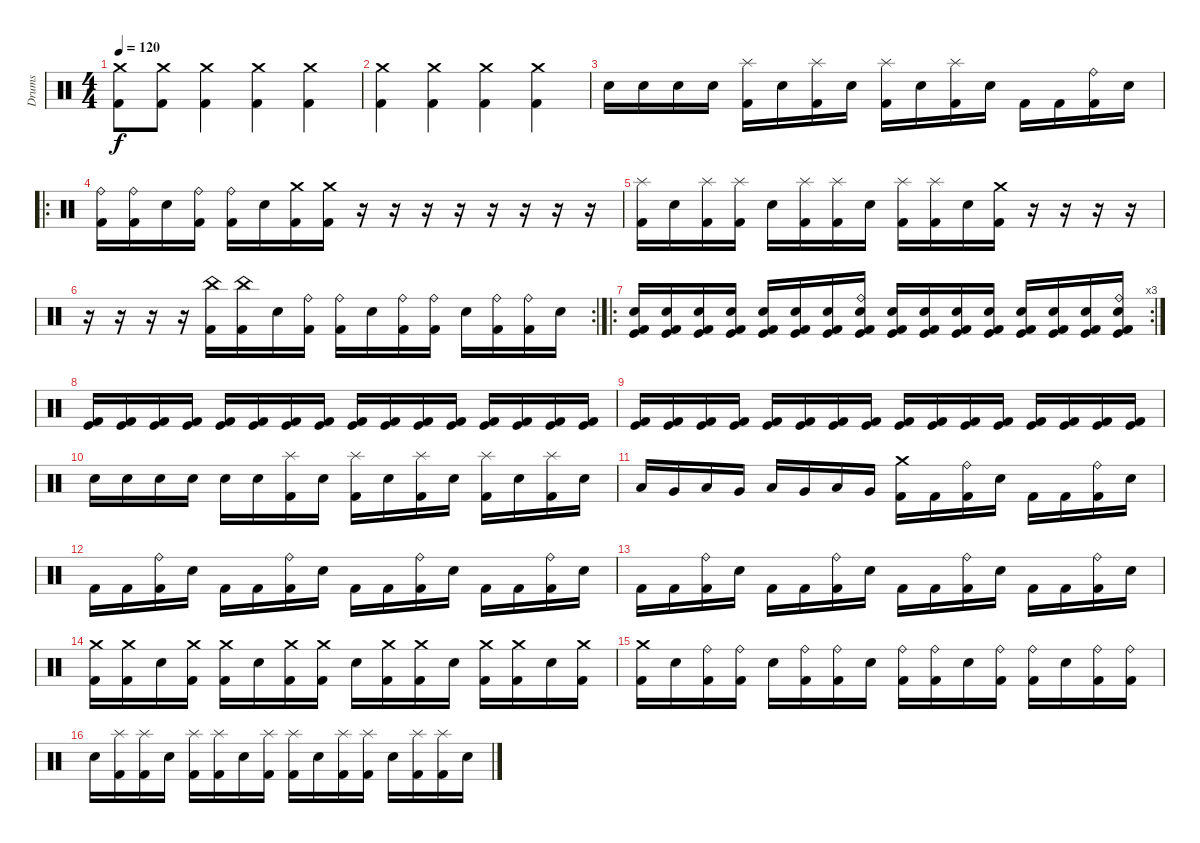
\track ("Drums" "Drums") {instrument percussion}
\staff {score}
\articulation defaults
\ts (4 4)
\tempo 120
\clef neutral
\ks c
("Crash medium (hit)" "Kick (hit) 2").8{dy f} ("Crash medium (hit)" "Kick (hit) 2").8 ("Crash medium (hit)" "Kick (hit) 2").4 ("Crash medium (hit)" "Kick (hit) 2").4 ("Crash medium (hit)" "Kick (hit) 2").4 |
("Crash medium (hit)" "Kick (hit) 2").4 ("Crash medium (hit)" "Kick (hit) 2").4 ("Crash medium (hit)" "Kick (hit) 2").4 ("Crash medium (hit)" "Kick (hit) 2").4 |
"Electric Snare (hit)".16 "Electric Snare (hit)".16 "Electric Snare (hit)".16 "Electric Snare (hit)".16 ("Splash (hit)" "Kick (hit) 2").16 "Electric Snare (hit)".16 ("Splash (hit)" "Kick (hit) 2").16 "Electric Snare (hit)".16 ("Splash (hit)" "Kick (hit) 2").16 "Electric Snare (hit)".16 ("Splash (hit)" "Kick (hit) 2").16 "Electric Snare (hit)".16 "Kick (hit) 2".16 "Kick (hit) 2".16 ("Ride (bell)" "Kick (hit) 2").16 "Electric Snare (hit)".16 |
\ro
("Ride (bell)" "Kick (hit) 2").16 ("Ride (bell)" "Kick (hit) 2").16 "Electric Snare (hit)".16 ("Ride (bell)" "Kick (hit) 2").16 ("Ride (bell)" "Kick (hit) 2").16 "Electric Snare (hit)".16 ("Crash medium (hit)" "Kick (hit) 2").16 ("Crash medium (hit)" "Kick (hit) 2").16 r.16 r.16 r.16 r.16 r.16 r.16 r.16 r.16 |
("Splash (hit)" "Kick (hit) 2").16 "Electric Snare (hit)".16 ("Splash (hit)" "Kick (hit) 2").16 ("Splash (hit)" "Kick (hit) 2").16 "Electric Snare (hit)".16 ("Splash (hit)" "Kick (hit) 2").16 ("Splash (hit)" "Kick (hit) 2").16 "Electric Snare (hit)".16 ("Splash (hit)" "Kick (hit) 2").16 ("Splash (hit)" "Kick (hit) 2").16 "Electric Snare (hit)".16 ("Crash medium (hit)" "Kick (hit) 2").16 r.16 r.16 r.16 r.16 |
\rc 2
r.16 r.16 r.16 r.16 ("China (hit)" "Kick (hit) 2").16 ("China (hit)" "Kick (hit) 2").16 "Electric Snare (hit)".16 ("Ride (bell)" "Kick (hit) 2").16 ("Ride (bell)" "Kick (hit) 2").16 "Electric Snare (hit)".16 ("Ride (bell)" "Kick (hit) 2").16 ("Ride (bell)" "Kick (hit) 2").16 "Electric Snare (hit)".16 ("Ride (bell)" "Kick (hit) 2").16 ("Ride (bell)" "Kick (hit) 2").16 "Electric Snare (hit)".16 |
\ro
\rc 3
("Snare (hit)" "Kick (hit) 2" "Kick (hit)").16 ("Snare (hit)" "Kick (hit) 2" "Kick (hit)").16 ("Snare (hit)" "Kick (hit) 2" "Kick (hit)").16 ("Snare (hit)" "Kick (hit) 2" "Kick (hit)").16 ("Snare (hit)" "Kick (hit) 2" "Kick (hit)").16 ("Snare (hit)" "Kick (hit) 2" "Kick (hit)").16 ("Snare (hit)" "Kick (hit) 2" "Kick (hit)").16 ("Snare (hit)" "Kick (hit) 2" "Kick (hit)" "Ride (bell)").16 ("Snare (hit)" "Kick (hit) 2" "Kick (hit)").16 ("Snare (hit)" "Kick (hit) 2" "Kick (hit)").16 ("Snare (hit)" "Kick (hit) 2" "Kick (hit)").16 ("Snare (hit)" "Kick (hit) 2" "Kick (hit)").16 ("Snare (hit)" "Kick (hit) 2" "Kick (hit)").16 ("Snare (hit)" "Kick (hit) 2" "Kick (hit)").16 ("Snare (hit)" "Kick (hit) 2" "Kick (hit)").16 ("Snare (hit)" "Kick (hit) 2" "Kick (hit)" "Ride (bell)").16 |
("Kick (hit)" "Kick (hit) 2").16 ("Kick (hit)" "Kick (hit) 2").16 ("Kick (hit)" "Kick (hit) 2").16 ("Kick (hit)" "Kick (hit) 2").16 ("Kick (hit)" "Kick (hit) 2").16 ("Kick (hit)" "Kick (hit) 2").16 ("Kick (hit)" "Kick (hit) 2").16 ("Kick (hit)" "Kick (hit) 2").16 ("Kick (hit)" "Kick (hit) 2").16 ("Kick (hit)" "Kick (hit) 2").16 ("Kick (hit)" "Kick (hit) 2").16 ("Kick (hit)" "Kick (hit) 2").16 ("Kick (hit)" "Kick (hit) 2").16 ("Kick (hit)" "Kick (hit) 2").16 ("Kick (hit)" "Kick (hit) 2").16 ("Kick (hit)" "Kick (hit) 2").16 |
("Kick (hit)" "Kick (hit) 2").16 ("Kick (hit)" "Kick (hit) 2").16 ("Kick (hit)" "Kick (hit) 2").16 ("Kick (hit)" "Kick (hit) 2").16 ("Kick (hit)" "Kick (hit) 2").16 ("Kick (hit)" "Kick (hit) 2").16 ("Kick (hit)" "Kick (hit) 2").16 ("Kick (hit)" "Kick (hit) 2").16 ("Kick (hit)" "Kick (hit) 2").16 ("Kick (hit)" "Kick (hit) 2").16 ("Kick (hit)" "Kick (hit) 2").16 ("Kick (hit)" "Kick (hit) 2").16 ("Kick (hit)" "Kick (hit) 2").16 ("Kick (hit)" "Kick (hit) 2").16 ("Kick (hit)" "Kick (hit) 2").16 ("Kick (hit)" "Kick (hit) 2").16 |
"Electric Snare (hit)".16 "Electric Snare (hit)".16 "Electric Snare (hit)".16 "Electric Snare (hit)".16 "Electric Snare (hit)".16 "Electric Snare (hit)".16 ("Splash (hit)" "Kick (hit) 2").16 "Electric Snare (hit)".16 ("Splash (hit)" "Kick (hit) 2").16 "Electric Snare (hit)".16 ("Splash (hit)" "Kick (hit) 2").16 "Electric Snare (hit)".16 ("Splash (hit)" "Kick (hit) 2").16 "Electric Snare (hit)".16 ("Splash (hit)" "Kick (hit) 2").16 "Electric Snare (hit)".16 |
"Low Floor Tom (hit)".16 "Very Low Tom (hit)".16 "Low Floor Tom (hit)".16 "Very Low Tom (hit)".16 "Low Floor Tom (hit)".16 "Very Low Tom (hit)".16 "Low Floor Tom (hit)".16 "Very Low Tom (hit)".16 ("Crash medium (hit)" "Kick (hit) 2").16 "Kick (hit) 2".16 ("Ride (bell)" "Kick (hit) 2").16 "Electric Snare (hit)".16 "Kick (hit) 2".16 "Kick (hit) 2".16 ("Ride (bell)" "Kick (hit) 2").16 "Electric Snare (hit)".16 |
"Kick (hit) 2".16 "Kick (hit) 2".16 ("Ride (bell)" "Kick (hit) 2").16 "Electric Snare (hit)".16 "Kick (hit) 2".16 "Kick (hit) 2".16 ("Ride (bell)" "Kick (hit) 2").16 "Electric Snare (hit)".16 "Kick (hit) 2".16 "Kick (hit) 2".16 ("Ride (bell)" "Kick (hit) 2").16 "Electric Snare (hit)".16 "Kick (hit) 2".16 "Kick (hit) 2".16 ("Ride (bell)" "Kick (hit) 2").16 "Electric Snare (hit)".16 |
"Kick (hit) 2".16 "Kick (hit) 2".16 ("Ride (bell)" "Kick (hit) 2").16 "Electric Snare (hit)".16 "Kick (hit) 2".16 "Kick (hit) 2".16 ("Ride (bell)" "Kick (hit) 2").16 "Electric Snare (hit)".16 "Kick (hit) 2".16 "Kick (hit) 2".16 ("Ride (bell)" "Kick (hit) 2").16 "Electric Snare (hit)".16 "Kick (hit) 2".16 "Kick (hit) 2".16 ("Ride (bell)" "Kick (hit) 2").16 "Electric Snare (hit)".16 |
("Crash medium (hit)" "Kick (hit) 2").16 ("Crash medium (hit)" "Kick (hit) 2").16 "Electric Snare (hit)".16 ("Crash medium (hit)" "Kick (hit) 2").16 ("Crash medium (hit)" "Kick (hit) 2").16 "Electric Snare (hit)".16 ("Crash medium (hit)" "Kick (hit) 2").16 ("Crash medium (hit)" "Kick (hit) 2").16 "Electric Snare (hit)".16 ("Crash medium (hit)" "Kick (hit) 2").16 ("Crash medium (hit)" "Kick (hit) 2").16 "Electric Snare (hit)".16 ("Crash medium (hit)" "Kick (hit) 2").16 ("Crash medium (hit)" "Kick (hit) 2").16 "Electric Snare (hit)".16 ("Crash medium (hit)" "Kick (hit) 2").16 |
("Crash medium (hit)" "Kick (hit) 2").16 "Electric Snare (hit)".16 ("Ride (bell)" "Kick (hit) 2").16 ("Ride (bell)" "Kick (hit) 2").16 "Electric Snare (hit)".16 ("Ride (bell)" "Kick (hit) 2").16 ("Ride (bell)" "Kick (hit) 2").16 "Electric Snare (hit)".16 ("Ride (bell)" "Kick (hit) 2").16 ("Ride (bell)" "Kick (hit) 2").16 "Electric Snare (hit)".16 ("Ride (bell)" "Kick (hit) 2").16 ("Ride (bell)" "Kick (hit) 2").16 "Electric Snare (hit)".16 ("Ride (bell)" "Kick (hit) 2").16 ("Ride (bell)" "Kick (hit) 2").16 |
"Electric Snare (hit)".16 ("Splash (hit)" "Kick (hit) 2").16 ("Splash (hit)" "Kick (hit) 2").16 "Electric Snare (hit)".16 ("Splash (hit)" "Kick (hit) 2").16 ("Splash (hit)" "Kick (hit) 2").16 "Electric Snare (hit)".16 ("Splash (hit)" "Kick (hit) 2").16 ("Splash (hit)" "Kick (hit) 2").16 "Electric Snare (hit)".16 ("Splash (hit)" "Kick (hit) 2").16 ("Splash (hit)" "Kick (hit) 2").16 "Electric Snare (hit)".16 ("Splash (hit)" "Kick (hit) 2").16 ("Splash (hit)" "Kick (hit) 2").16 "Electric Snare (hit)".16
